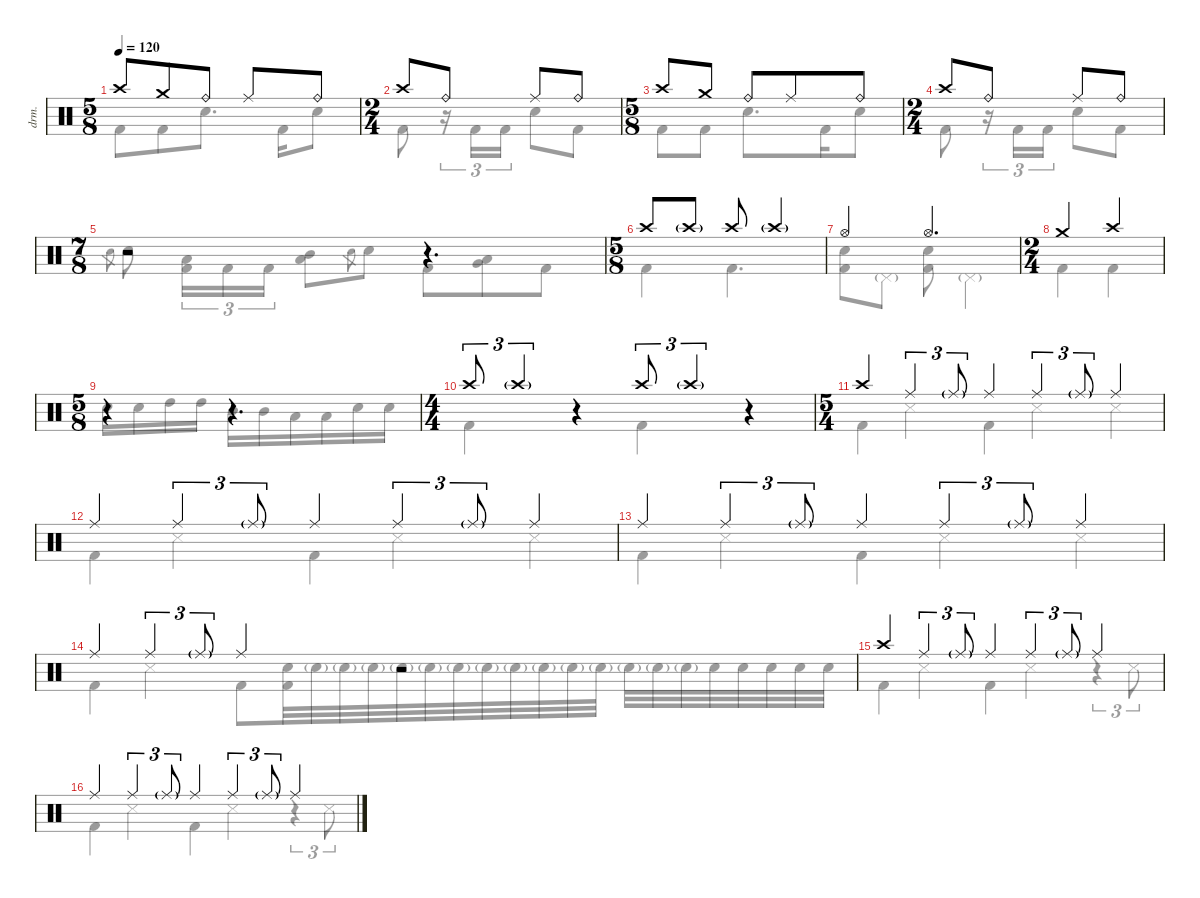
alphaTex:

\defaultSystemsLayout 4
\hideDynamics
\bracketExtendMode nobrackets
\otherSystemsTrackNameOrientation horizontal
\track ("B. Richardson Drums" "drm.") {instrument percussion}
\staff {score}
\articulation defaults
\voice
\ts (5 8)
\tempo 120
\clef neutral
\ks c "Crash high (hit)".8{dy mf beam Up} "Crash medium (hit)".8{beam Up} "Ride (bell)".8{dy f beam Up} "Ride (middle)".8{dy mf beam Up} "Ride (bell)".8{dy f beam Up}
|
\ts (2 4)
\beaming (8 2 2)
"Crash high (hit)".8{dy mf beam Up} "Ride (bell)".8{dy f beam Up} "Ride (middle)".8{dy mf beam Up} "Ride (bell)".8{dy f beam Up} |
\ts (5 8)
\beaming (8 2 3)
"Crash high (hit)".8{dy mf beam Up} "Crash medium (hit)".8{beam Up} "Ride (bell)".8{dy f beam Up} "Ride (middle)".8{dy mf beam Up} "Ride (bell)".8{dy f beam Up} |
\ts (2 4)
\beaming (8 2 2)
"Crash high (hit)".8{dy mf beam Up} "Ride (bell)".8{dy f beam Up} "Ride (middle)".8{dy mf beam Up} "Ride (bell)".8{dy f beam Up} |
\ts (7 8)
\beaming (8 2 2 3)
r.2{beam Up} r.4{d beam Up} |
\ts (5 8)
\beaming (8 2 3)
"Crash high (hit)".8{dy mf beam Up} "Crash high (hit)"{g}.8{dy pp beam Up} "Crash high (hit)".8{dy mf beam Up} "Crash high (hit)"{g}.4{dy pp beam Up} |
"Hi-Hat (open)".4{dy mf beam Up} "Hi-Hat (open)".4{d beam Up} |
\ts (2 4)
\beaming (8 2 2)
"Crash medium (hit)".4{dy f beam Up} "Crash high (hit)".4{dy mf beam Up} |
\ts (5 8)
\beaming (8 2 3)
r.4{beam Up} r.4{d beam Up} |
\ts (4 4)
\beaming (8 4 4)
"Crash high (hit)".8{tu (3 2) beam Up} "Crash high (hit)"{g}.4{tu (3 2) dy pp beam Up} r.4{beam Up} "Crash high (hit)".8{tu (3 2) dy mf beam Up} "Crash high (hit)"{g}.4{tu (3 2) dy pp beam Up} r.4{beam Up} |
\ts (5 4)
\beaming (8 4 4 2)
"Crash high (hit)".4{dy mf beam Up} "Ride (middle)".4{tu (3 2) beam Up} "Ride (middle)"{g}.8{tu (3 2) beam Up} "Ride (middle)".4{beam Up} "Ride (middle)".4{tu (3 2) beam Up} "Ride (middle)"{g}.8{tu (3 2) beam Up} "Ride (middle)".4{beam Up} |
"Ride (middle)".4{beam Up} "Ride (middle)".4{tu (3 2) beam Up} "Ride (middle)"{g}.8{tu (3 2) beam Up} "Ride (middle)".4{beam Up} "Ride (middle)".4{tu (3 2) beam Up} "Ride (middle)"{g}.8{tu (3 2) beam Up} "Ride (middle)".4{beam Up} |
"Ride (middle)".4{beam Up} "Ride (middle)".4{tu (3 2) beam Up} "Ride (middle)"{g}.8{tu (3 2) beam Up} "Ride (middle)".4{beam Up} "Ride (middle)".4{tu (3 2) beam Up} "Ride (middle)"{g}.8{tu (3 2) beam Up} "Ride (middle)".4{beam Up} |
"Ride (middle)".4{beam Up} "Ride (middle)".4{tu (3 2) beam Up} "Ride (middle)"{g}.8{tu (3 2) beam Up} "Ride (middle)".4{beam Up} r.2{beam Up} |
"Crash high (hit)".4{beam Up} "Ride (middle)".4{tu (3 2) beam Up} "Ride (middle)"{g}.8{tu (3 2) beam Up} "Ride (middle)".4{beam Up} "Ride (middle)".4{tu (3 2) beam Up} "Ride (middle)"{g}.8{tu (3 2) beam Up} "Ride (middle)".4{beam Up} |
"Ride (middle)".4{beam Up} "Ride (middle)".4{tu (3 2) beam Up} "Ride (middle)"{g}.8{tu (3 2) beam Up} "Ride (middle)".4{beam Up} "Ride (middle)".4{tu (3 2) beam Up} "Ride (middle)"{g}.8{tu (3 2) beam Up} "Ride (middle)".4{beam Up}
\voice
\clef neutral
\ottava regular
\simile none
\ks c "Kick (hit) 2".8{dy fff beam Down} "Kick (hit) 2".8{beam Down} "Snare (hit) 2".8{d beam Down} "Kick (hit) 2".16{beam Down} "Snare (hit) 2".8{beam Down}
|
"Kick (hit) 2".8{beam Down} r.16{tu (3 2) beam Down} "Kick (hit) 2".16{tu (3 2) beam Down} "Kick (hit) 2".16{tu (3 2) beam Down} "Snare (hit) 2".8{beam Down} "Kick (hit) 2".8{beam Down} |
"Kick (hit) 2".8{beam Down} "Kick (hit) 2".8{beam Down} "Snare (hit) 2".8{d beam Down} "Kick (hit) 2".16{beam Down} "Snare (hit) 2".8{beam Down} |
"Kick (hit) 2".8{beam Down} r.16{tu (3 2) beam Down} "Kick (hit) 2".16{tu (3 2) beam Down} "Kick (hit) 2".16{tu (3 2) beam Down} "Snare (hit) 2".8{beam Down} "Kick (hit) 2".8{beam Down} |
"Electric Snare (hit)".8{gr dy ff beam Down} "Snare (hit) 2".8{dy fff beam Down} ("Low Tom (hit)" "Kick (hit) 2").16{tu (3 2) beam Down} "Kick (hit) 2".16{tu (3 2) beam Down} "Kick (hit) 2".16{tu (3 2) beam Down} ("Mid Tom (hit)" "Low Tom (hit)").8{beam Down} "Electric Snare (hit)".8{gr dy ff beam Down} "Snare (hit) 2".8{dy fff beam Down} "Kick (hit) 2".8{beam Down} ("Low Tom (hit)" "Very Low Tom (hit)").8{beam Down} "Kick (hit) 2".8{beam Down} |
"Kick (hit) 2".4{beam Down} "Kick (hit) 2".4{d beam Down} |
("Snare (hit) 2" "Kick (hit) 2").8{dy f beam Down} "Pedal Hi-Hat (hit)"{g}.8{dy mf beam Down} ("Snare (hit) 2" "Kick (hit) 2").8{dy f beam Down} "Pedal Hi-Hat (hit)"{g}.4{dy mf beam Down} |
"Kick (hit) 2".4{dy fff beam Down} "Kick (hit) 2".4{beam Down} |
"Snare (hit) 2".16{beam Down} "Snare (hit) 2".16{beam Down} "High Tom (hit)".16{beam Down} "High Tom (hit)".16{beam Down} "Mid Tom (hit)".16{beam Down} "Mid Tom (hit)".16{beam Down} "Low Tom (hit)".16{beam Down} "Low Tom (hit)".16{beam Down} "Snare (hit) 2".16{beam Down} "Snare (hit) 2".16{beam Down} |
"Kick (hit) 2".4{beam Down} r.4{beam Down} "Kick (hit) 2".4{beam Down} r.4{beam Down} |
"Kick (hit) 2".4{beam Down} "Snare (side stick) 3".4{dy f beam Down} "Kick (hit) 2".4{dy fff beam Down} "Snare (side stick) 3".4{dy f beam Down} "Snare (side stick) 3".4{beam Down} |
"Kick (hit) 2".4{dy fff beam Down} "Snare (side stick) 3".4{dy f beam Down} "Kick (hit) 2".4{dy fff beam Down} "Snare (side stick) 3".4{dy f beam Down} "Snare (side stick) 3".4{beam Down} |
"Kick (hit) 2".4{dy fff beam Down} "Snare (side stick) 3".4{dy f beam Down} "Kick (hit) 2".4{dy fff beam Down} "Snare (side stick) 3".4{dy f beam Down} "Snare (side stick) 3".4{beam Down} |
"Kick (hit) 2".4{dy fff beam Down} "Snare (side stick) 3".4{dy f beam Down} "Kick (hit) 2".8{dy fff beam Down} ("Snare (hit) 2" "Kick (hit) 2").32{dy mf beam Down} "Snare (hit) 2"{g}.32{dy mp beam Down} "Snare (hit) 2"{g}.32{beam Down} "Snare (hit) 2"{g}.32{dy mf beam Down} "Snare (hit) 2"{g}.32{beam Down} "Snare (hit) 2"{g}.32{beam Down} "Snare (hit) 2"{g}.32{beam Down} "Snare (hit) 2"{g}.32{beam Down} "Snare (hit) 2"{g}.32{beam Down} "Snare (hit) 2"{g}.32{beam Down} "Snare (hit) 2"{g}.32{beam Down} "Snare (hit) 2"{g}.32{beam Down} "Snare (hit) 2"{g}.32{beam Down} "Snare (hit) 2"{g}.32{beam Down} "Snare (hit) 2"{g}.32{beam Down} "Snare (hit) 2".32{beam Down} "Snare (hit) 2".32{beam Down} "Snare (hit) 2".32{beam Down} "Snare (hit) 2".32{beam Down} "Snare (hit) 2".32{beam Down} |
"Kick (hit) 2".4{dy fff beam Down} "Snare (side stick) 3".4{dy f beam Down} "Kick (hit) 2".4{dy fff beam Down} "Snare (side stick) 3".4{dy f beam Down} r.4{tu (3 2) beam Down} "Snare (side stick) 3".8{tu (3 2) beam Down} |
"Kick (hit) 2".4{dy fff beam Down} "Snare (side stick) 3".4{dy f beam Down} "Kick (hit) 2".4{dy fff beam Down} "Snare (side stick) 3".4{dy f beam Down} r.4{tu (3 2) beam Down} "Snare (side stick) 3".8{tu (3 2) beam Down}
